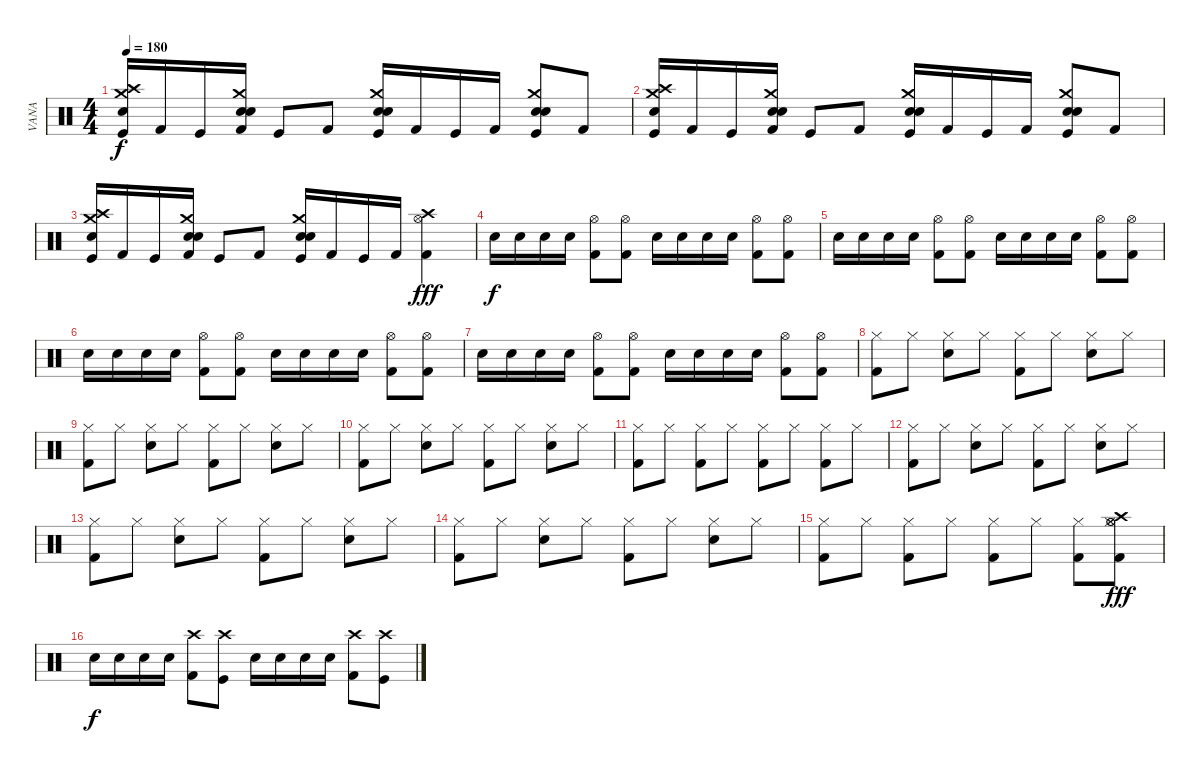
\track ("VANA" "VANA") {instrument percussion}
\staff {score}
\articulation defaults
\ts (4 4)
\tempo 180
\clef neutral
\ks c
("Snare (hit) 2" "Crash medium (hit)" "Crash high (hit)" "Kick (hit)").16{dy f} "Kick (hit) 2".16 "Kick (hit)".16 ("Snare (hit) 2" "Crash medium (hit)" "Electric Snare (hit)" "Kick (hit) 2").16 "Kick (hit)".8 "Kick (hit) 2".8 ("Snare (hit) 2" "Crash medium (hit)" "Electric Snare (hit)" "Kick (hit)").16 "Kick (hit) 2".16 "Kick (hit)".16 "Kick (hit) 2".16 ("Snare (hit) 2" "Crash medium (hit)" "Electric Snare (hit)" "Kick (hit)").8 "Kick (hit) 2".8 |
("Snare (hit) 2" "Crash medium (hit)" "Crash high (hit)" "Kick (hit)").16 "Kick (hit) 2".16 "Kick (hit)".16 ("Snare (hit) 2" "Crash medium (hit)" "Electric Snare (hit)" "Kick (hit) 2").16 "Kick (hit)".8 "Kick (hit) 2".8 ("Snare (hit) 2" "Crash medium (hit)" "Electric Snare (hit)" "Kick (hit)").16 "Kick (hit) 2".16 "Kick (hit)".16 "Kick (hit) 2".16 ("Snare (hit) 2" "Crash medium (hit)" "Electric Snare (hit)" "Kick (hit)").8 "Kick (hit) 2".8 |
("Snare (hit) 2" "Crash medium (hit)" "Crash high (hit)" "Kick (hit)").16 "Kick (hit) 2".16 "Kick (hit)".16 ("Snare (hit) 2" "Crash medium (hit)" "Electric Snare (hit)" "Kick (hit) 2").16 "Kick (hit)".8 "Kick (hit) 2".8 ("Snare (hit) 2" "Crash medium (hit)" "Electric Snare (hit)" "Kick (hit)").16 "Kick (hit) 2".16 "Kick (hit)".16 "Kick (hit) 2".16 ("Hi-Hat (open)" "Crash high (hit)" "Kick (hit) 2").4{dy fff} |
"Electric Snare (hit)".16{dy f} "Electric Snare (hit)".16 "Electric Snare (hit)".16 "Electric Snare (hit)".16 ("Hi-Hat (open)" "Kick (hit) 2").8 ("Hi-Hat (open)" "Kick (hit) 2").8 "Electric Snare (hit)".16 "Electric Snare (hit)".16 "Electric Snare (hit)".16 "Electric Snare (hit)".16 ("Hi-Hat (open)" "Kick (hit) 2").8 ("Hi-Hat (open)" "Kick (hit) 2").8 |
"Electric Snare (hit)".16 "Electric Snare (hit)".16 "Electric Snare (hit)".16 "Electric Snare (hit)".16 ("Hi-Hat (open)" "Kick (hit) 2").8 ("Hi-Hat (open)" "Kick (hit) 2").8 "Electric Snare (hit)".16 "Electric Snare (hit)".16 "Electric Snare (hit)".16 "Electric Snare (hit)".16 ("Hi-Hat (open)" "Kick (hit) 2").8 ("Hi-Hat (open)" "Kick (hit) 2").8 |
"Electric Snare (hit)".16 "Electric Snare (hit)".16 "Electric Snare (hit)".16 "Electric Snare (hit)".16 ("Hi-Hat (open)" "Kick (hit) 2").8 ("Hi-Hat (open)" "Kick (hit) 2").8 "Electric Snare (hit)".16 "Electric Snare (hit)".16 "Electric Snare (hit)".16 "Electric Snare (hit)".16 ("Hi-Hat (open)" "Kick (hit) 2").8 ("Hi-Hat (open)" "Kick (hit) 2").8 |
"Electric Snare (hit)".16 "Electric Snare (hit)".16 "Electric Snare (hit)".16 "Electric Snare (hit)".16 ("Hi-Hat (open)" "Kick (hit) 2").8 ("Hi-Hat (open)" "Kick (hit) 2").8 "Electric Snare (hit)".16 "Electric Snare (hit)".16 "Electric Snare (hit)".16 "Electric Snare (hit)".16 ("Hi-Hat (open)" "Kick (hit) 2").8 ("Hi-Hat (open)" "Kick (hit) 2").8 |
("Hi-Hat (closed)" "Kick (hit) 2").8 "Hi-Hat (closed)".8 ("Hi-Hat (closed)" "Electric Snare (hit)").8 "Hi-Hat (closed)".8 ("Hi-Hat (closed)" "Kick (hit) 2").8 "Hi-Hat (closed)".8 ("Hi-Hat (closed)" "Electric Snare (hit)").8 "Hi-Hat (closed)".8 |
("Hi-Hat (closed)" "Kick (hit) 2").8 "Hi-Hat (closed)".8 ("Hi-Hat (closed)" "Electric Snare (hit)").8 "Hi-Hat (closed)".8 ("Hi-Hat (closed)" "Kick (hit) 2").8 "Hi-Hat (closed)".8 ("Hi-Hat (closed)" "Electric Snare (hit)").8 "Hi-Hat (closed)".8 |
("Hi-Hat (closed)" "Kick (hit) 2").8 "Hi-Hat (closed)".8 ("Hi-Hat (closed)" "Electric Snare (hit)").8 "Hi-Hat (closed)".8 ("Hi-Hat (closed)" "Kick (hit) 2").8 "Hi-Hat (closed)".8 ("Hi-Hat (closed)" "Electric Snare (hit)").8 "Hi-Hat (closed)".8 |
("Hi-Hat (closed)" "Kick (hit) 2").8 "Hi-Hat (closed)".8 ("Hi-Hat (closed)" "Kick (hit) 2").8 "Hi-Hat (closed)".8 ("Hi-Hat (closed)" "Kick (hit) 2").8 "Hi-Hat (closed)".8 ("Hi-Hat (closed)" "Kick (hit) 2").8 "Hi-Hat (closed)".8 |
("Hi-Hat (closed)" "Kick (hit) 2").8 "Hi-Hat (closed)".8 ("Hi-Hat (closed)" "Electric Snare (hit)").8 "Hi-Hat (closed)".8 ("Hi-Hat (closed)" "Kick (hit) 2").8 "Hi-Hat (closed)".8 ("Hi-Hat (closed)" "Electric Snare (hit)").8 "Hi-Hat (closed)".8 |
("Hi-Hat (closed)" "Kick (hit) 2").8 "Hi-Hat (closed)".8 ("Hi-Hat (closed)" "Electric Snare (hit)").8 "Hi-Hat (closed)".8 ("Hi-Hat (closed)" "Kick (hit) 2").8 "Hi-Hat (closed)".8 ("Hi-Hat (closed)" "Electric Snare (hit)").8 "Hi-Hat (closed)".8 |
("Hi-Hat (closed)" "Kick (hit) 2").8 "Hi-Hat (closed)".8 ("Hi-Hat (closed)" "Electric Snare (hit)").8 "Hi-Hat (closed)".8 ("Hi-Hat (closed)" "Kick (hit) 2").8 "Hi-Hat (closed)".8 ("Hi-Hat (closed)" "Electric Snare (hit)").8 "Hi-Hat (closed)".8 |
("Hi-Hat (closed)" "Kick (hit) 2").8 "Hi-Hat (closed)".8 ("Hi-Hat (closed)" "Kick (hit) 2").8 "Hi-Hat (closed)".8 ("Hi-Hat (closed)" "Kick (hit) 2").8 "Hi-Hat (closed)".8 ("Hi-Hat (closed)" "Kick (hit) 2").8 ("Hi-Hat (closed)" "Hi-Hat (open)" "Hi-Hat (open)" "Crash high (hit)" "Kick (hit) 2").8{dy fff} |
"Electric Snare (hit)".16{dy f} "Electric Snare (hit)".16 "Electric Snare (hit)".16 "Electric Snare (hit)".16 ("Crash high (hit)" "Kick (hit) 2").8 ("Crash high (hit)" "Kick (hit)").8 "Electric Snare (hit)".16 "Electric Snare (hit)".16 "Electric Snare (hit)".16 "Electric Snare (hit)".16 ("Crash high (hit)" "Kick (hit) 2").8 ("Crash high (hit)" "Kick (hit)").8
